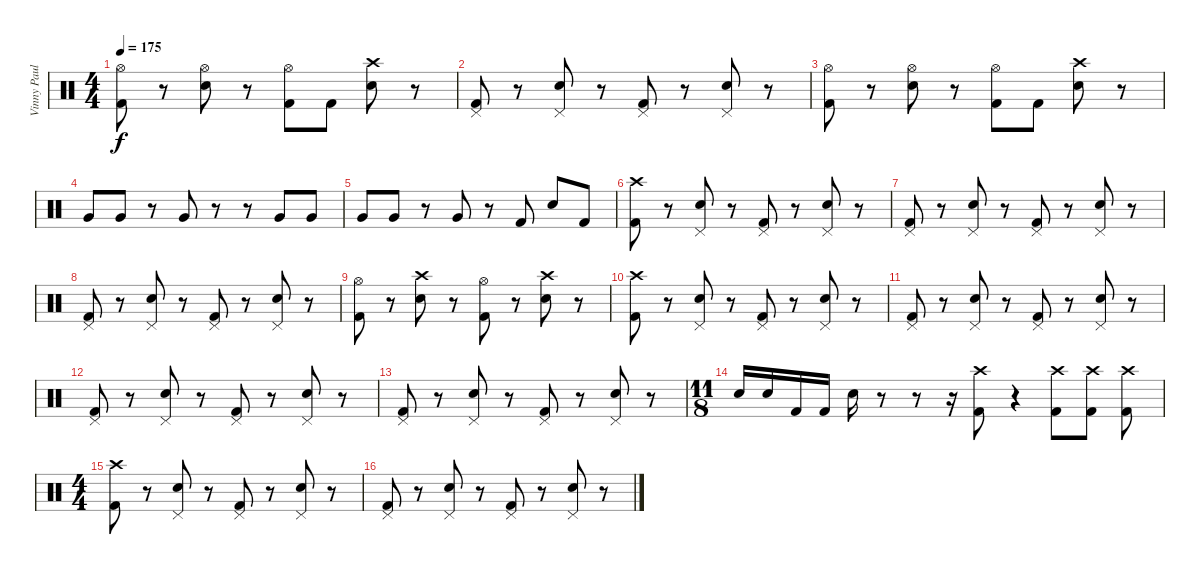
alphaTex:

\track ("Vinny Paul" "Vinny Paul") {instrument percussion}
\staff {score}
\articulation defaults
\ts (4 4)
\tempo 175
\clef neutral
\ks c
("Hi-Hat (open)" "Kick (hit) 2").8{dy f} r.8 ("Hi-Hat (open)" "Snare (hit) 2").8 r.8 ("Hi-Hat (open)" "Kick (hit) 2").8 "Kick (hit) 2".8 ("Crash high (hit)" "Snare (hit) 2").8 r.8 |
("Pedal Hi-Hat (hit)" "Kick (hit) 2").8 r.8 ("Pedal Hi-Hat (hit)" "Snare (hit) 2").8 r.8 ("Pedal Hi-Hat (hit)" "Kick (hit) 2").8 r.8 ("Pedal Hi-Hat (hit)" "Snare (hit) 2").8 r.8 |
("Hi-Hat (open)" "Kick (hit) 2").8 r.8 ("Hi-Hat (open)" "Snare (hit) 2").8 r.8 ("Hi-Hat (open)" "Kick (hit) 2").8 "Kick (hit) 2".8 ("Crash high (hit)" "Snare (hit) 2").8 r.8 |
"Very Low Tom (hit)".8 "Very Low Tom (hit)".8 r.8 "Very Low Tom (hit)".8 r.8 r.8 "Very Low Tom (hit)".8 "Very Low Tom (hit)".8 |
"Very Low Tom (hit)".8 "Very Low Tom (hit)".8 r.8 "Very Low Tom (hit)".8 r.8 "Kick (hit) 2".8 "Snare (hit) 2".8 "Kick (hit) 2".8 |
("Crash high (hit)" "Kick (hit) 2").8 r.8 ("Pedal Hi-Hat (hit)" "Snare (hit) 2").8 r.8 ("Pedal Hi-Hat (hit)" "Kick (hit) 2").8 r.8 ("Pedal Hi-Hat (hit)" "Snare (hit) 2").8 r.8 |
("Pedal Hi-Hat (hit)" "Kick (hit) 2").8 r.8 ("Pedal Hi-Hat (hit)" "Snare (hit) 2").8 r.8 ("Pedal Hi-Hat (hit)" "Kick (hit) 2").8 r.8 ("Pedal Hi-Hat (hit)" "Snare (hit) 2").8 r.8 |
("Pedal Hi-Hat (hit)" "Kick (hit) 2").8 r.8 ("Pedal Hi-Hat (hit)" "Snare (hit) 2").8 r.8 ("Pedal Hi-Hat (hit)" "Kick (hit) 2").8 r.8 ("Pedal Hi-Hat (hit)" "Snare (hit) 2").8 r.8 |
("Hi-Hat (open)" "Kick (hit) 2").8 r.8 ("Crash high (hit)" "Snare (hit) 2").8 r.8 ("Hi-Hat (open)" "Kick (hit) 2").8 r.8 ("Crash high (hit)" "Snare (hit) 2").8 r.8 |
("Crash high (hit)" "Kick (hit) 2").8 r.8 ("Pedal Hi-Hat (hit)" "Snare (hit) 2").8 r.8 ("Pedal Hi-Hat (hit)" "Kick (hit) 2").8 r.8 ("Pedal Hi-Hat (hit)" "Snare (hit) 2").8 r.8 |
("Pedal Hi-Hat (hit)" "Kick (hit) 2").8 r.8 ("Pedal Hi-Hat (hit)" "Snare (hit) 2").8 r.8 ("Pedal Hi-Hat (hit)" "Kick (hit) 2").8 r.8 ("Pedal Hi-Hat (hit)" "Snare (hit) 2").8 r.8 |
("Pedal Hi-Hat (hit)" "Kick (hit) 2").8 r.8 ("Pedal Hi-Hat (hit)" "Snare (hit) 2").8 r.8 ("Pedal Hi-Hat (hit)" "Kick (hit) 2").8 r.8 ("Pedal Hi-Hat (hit)" "Snare (hit) 2").8 r.8 |
("Pedal Hi-Hat (hit)" "Kick (hit) 2").8 r.8 ("Pedal Hi-Hat (hit)" "Snare (hit) 2").8 r.8 ("Pedal Hi-Hat (hit)" "Kick (hit) 2").8 r.8 ("Pedal Hi-Hat (hit)" "Snare (hit) 2").8 r.8 |
\ts (11 8)
"Snare (hit) 2".16 "Snare (hit) 2".16 "Kick (hit) 2".16 "Kick (hit) 2".16 "Snare (hit) 2".16 r.8 r.8 r.16 ("Crash high (hit)" "Kick (hit) 2").8 r.4 ("Crash high (hit)" "Kick (hit) 2").8 ("Crash high (hit)" "Kick (hit) 2").8 ("Crash high (hit)" "Kick (hit) 2").8 |
\ts (4 4)
("Crash high (hit)" "Kick (hit) 2").8 r.8 ("Pedal Hi-Hat (hit)" "Snare (hit) 2").8 r.8 ("Pedal Hi-Hat (hit)" "Kick (hit) 2").8 r.8 ("Pedal Hi-Hat (hit)" "Snare (hit) 2").8 r.8 |
("Pedal Hi-Hat (hit)" "Kick (hit) 2").8 r.8 ("Pedal Hi-Hat (hit)" "Snare (hit) 2").8 r.8 ("Pedal Hi-Hat (hit)" "Kick (hit) 2").8 r.8 ("Pedal Hi-Hat (hit)" "Snare (hit) 2").8 r.8
